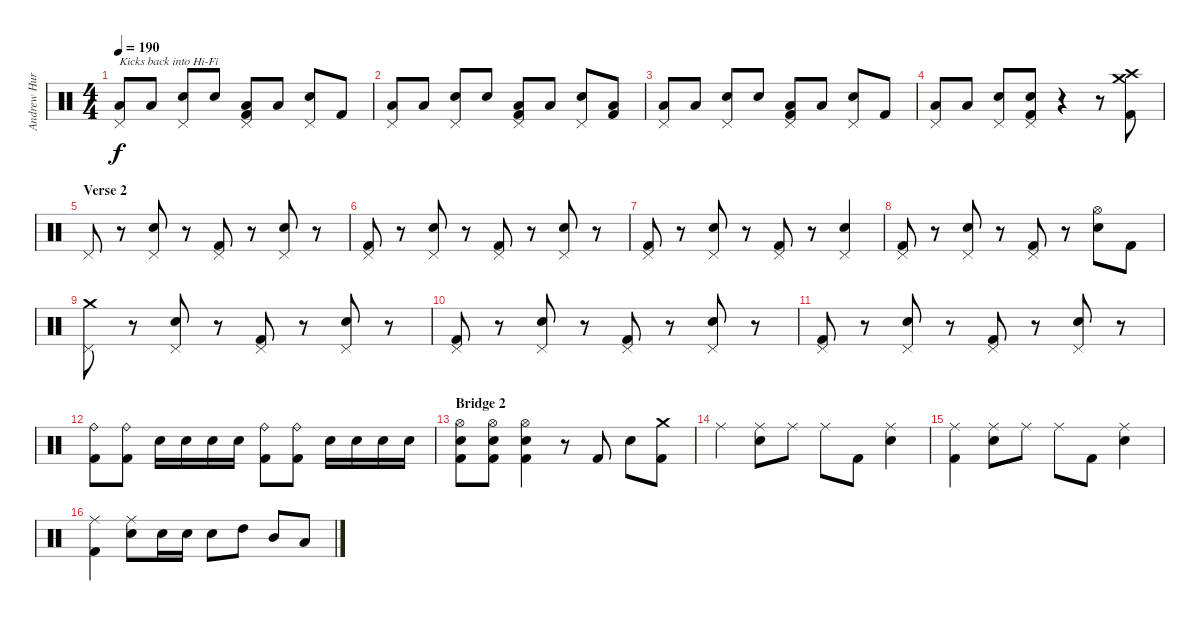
\track ("Andrew Hurley (Drums)" "Andrew Hur") {instrument percussion}
\staff {score}
\articulation defaults
\ts (4 4)
\tempo 190
\clef neutral
\ks c
("Pedal Hi-Hat (hit)" "Low Floor Tom (hit)").8{txt "Kicks back into Hi-Fi" dy f} "Low Floor Tom (hit)".8 ("Pedal Hi-Hat (hit)" "Electric Snare (hit)").8 "Electric Snare (hit)".8 ("Pedal Hi-Hat (hit)" "Kick (hit) 2" "Low Floor Tom (hit)").8 "Low Floor Tom (hit)".8 ("Pedal Hi-Hat (hit)" "Electric Snare (hit)").8 "Kick (hit) 2".8 |
("Pedal Hi-Hat (hit)" "Low Floor Tom (hit)").8 "Low Floor Tom (hit)".8 ("Pedal Hi-Hat (hit)" "Electric Snare (hit)").8 "Electric Snare (hit)".8 ("Pedal Hi-Hat (hit)" "Kick (hit) 2" "Low Floor Tom (hit)").8 "Low Floor Tom (hit)".8 ("Pedal Hi-Hat (hit)" "Electric Snare (hit)").8 ("Kick (hit) 2" "Low Floor Tom (hit)").8 |
("Pedal Hi-Hat (hit)" "Low Floor Tom (hit)").8 "Low Floor Tom (hit)".8 ("Pedal Hi-Hat (hit)" "Electric Snare (hit)").8 "Electric Snare (hit)".8 ("Pedal Hi-Hat (hit)" "Kick (hit) 2" "Low Floor Tom (hit)").8 "Low Floor Tom (hit)".8 ("Pedal Hi-Hat (hit)" "Electric Snare (hit)").8 "Kick (hit) 2".8 |
("Pedal Hi-Hat (hit)" "Low Floor Tom (hit)").8 "Low Floor Tom (hit)".8 ("Pedal Hi-Hat (hit)" "Electric Snare (hit)").8 ("Pedal Hi-Hat (hit)" "Electric Snare (hit)" "Kick (hit) 2").8 r.4 r.8 ("Crash high (hit)" "Crash medium (hit)" "Kick (hit) 2").8 |
\section ("" "Verse 2")
"Pedal Hi-Hat (hit)".8 r.8 ("Pedal Hi-Hat (hit)" "Electric Snare (hit)").8 r.8 ("Pedal Hi-Hat (hit)" "Kick (hit) 2").8 r.8 ("Pedal Hi-Hat (hit)" "Electric Snare (hit)").8 r.8 |
("Pedal Hi-Hat (hit)" "Kick (hit) 2").8 r.8 ("Pedal Hi-Hat (hit)" "Electric Snare (hit)").8 r.8 ("Pedal Hi-Hat (hit)" "Kick (hit) 2").8 r.8 ("Pedal Hi-Hat (hit)" "Electric Snare (hit)").8 r.8 |
("Pedal Hi-Hat (hit)" "Kick (hit) 2").8 r.8 ("Pedal Hi-Hat (hit)" "Electric Snare (hit)").8 r.8 ("Pedal Hi-Hat (hit)" "Kick (hit) 2").8 r.8 ("Pedal Hi-Hat (hit)" "Electric Snare (hit)").4 |
("Pedal Hi-Hat (hit)" "Kick (hit) 2").8 r.8 ("Pedal Hi-Hat (hit)" "Electric Snare (hit)").8 r.8 ("Pedal Hi-Hat (hit)" "Kick (hit) 2").8 r.8 ("Hi-Hat (open)" "Electric Snare (hit)").8 "Kick (hit) 2".8 |
("Crash medium (hit)" "Pedal Hi-Hat (hit)").8 r.8 ("Pedal Hi-Hat (hit)" "Electric Snare (hit)").8 r.8 ("Pedal Hi-Hat (hit)" "Kick (hit) 2").8 r.8 ("Pedal Hi-Hat (hit)" "Electric Snare (hit)").8 r.8 |
("Pedal Hi-Hat (hit)" "Kick (hit) 2").8 r.8 ("Pedal Hi-Hat (hit)" "Electric Snare (hit)").8 r.8 ("Pedal Hi-Hat (hit)" "Kick (hit) 2").8 r.8 ("Pedal Hi-Hat (hit)" "Electric Snare (hit)").8 r.8 |
("Pedal Hi-Hat (hit)" "Kick (hit) 2").8 r.8 ("Pedal Hi-Hat (hit)" "Electric Snare (hit)").8 r.8 ("Pedal Hi-Hat (hit)" "Kick (hit) 2").8 r.8 ("Pedal Hi-Hat (hit)" "Electric Snare (hit)").8 r.8 |
("Ride (bell)" "Kick (hit) 2").8 ("Ride (bell)" "Kick (hit) 2").8 "Electric Snare (hit)".16 "Electric Snare (hit)".16 "Electric Snare (hit)".16 "Electric Snare (hit)".16 ("Ride (bell)" "Kick (hit) 2").8 ("Ride (bell)" "Kick (hit) 2").8 "Electric Snare (hit)".16 "Electric Snare (hit)".16 "Electric Snare (hit)".16 "Electric Snare (hit)".16 |
\section ("" "Bridge 2")
("Hi-Hat (open)" "Electric Snare (hit)" "Kick (hit) 2").8 ("Hi-Hat (open)" "Electric Snare (hit)" "Kick (hit) 2").8 ("Hi-Hat (open)" "Electric Snare (hit)" "Kick (hit) 2").4 r.8 "Kick (hit) 2".8 "Electric Snare (hit)".8 ("Crash medium (hit)" "Kick (hit) 2").8 |
"Ride (middle)".4 ("Ride (middle)" "Electric Snare (hit)").8 "Ride (middle)".8 "Ride (middle)".8 "Kick (hit) 2".8 ("Ride (middle)" "Electric Snare (hit)").4 |
("Ride (middle)" "Kick (hit) 2").4 ("Ride (middle)" "Electric Snare (hit)").8 "Ride (middle)".8 "Ride (middle)".8 "Kick (hit) 2".8 ("Ride (middle)" "Electric Snare (hit)").4 |
("Ride (middle)" "Kick (hit) 2").4 ("Ride (middle)" "Electric Snare (hit)").8 "Electric Snare (hit)".16 "Electric Snare (hit)".16 "Electric Snare (hit)".8 "High Tom (hit)".8 "Mid Tom (hit)".8 "Low Tom (hit)".8
